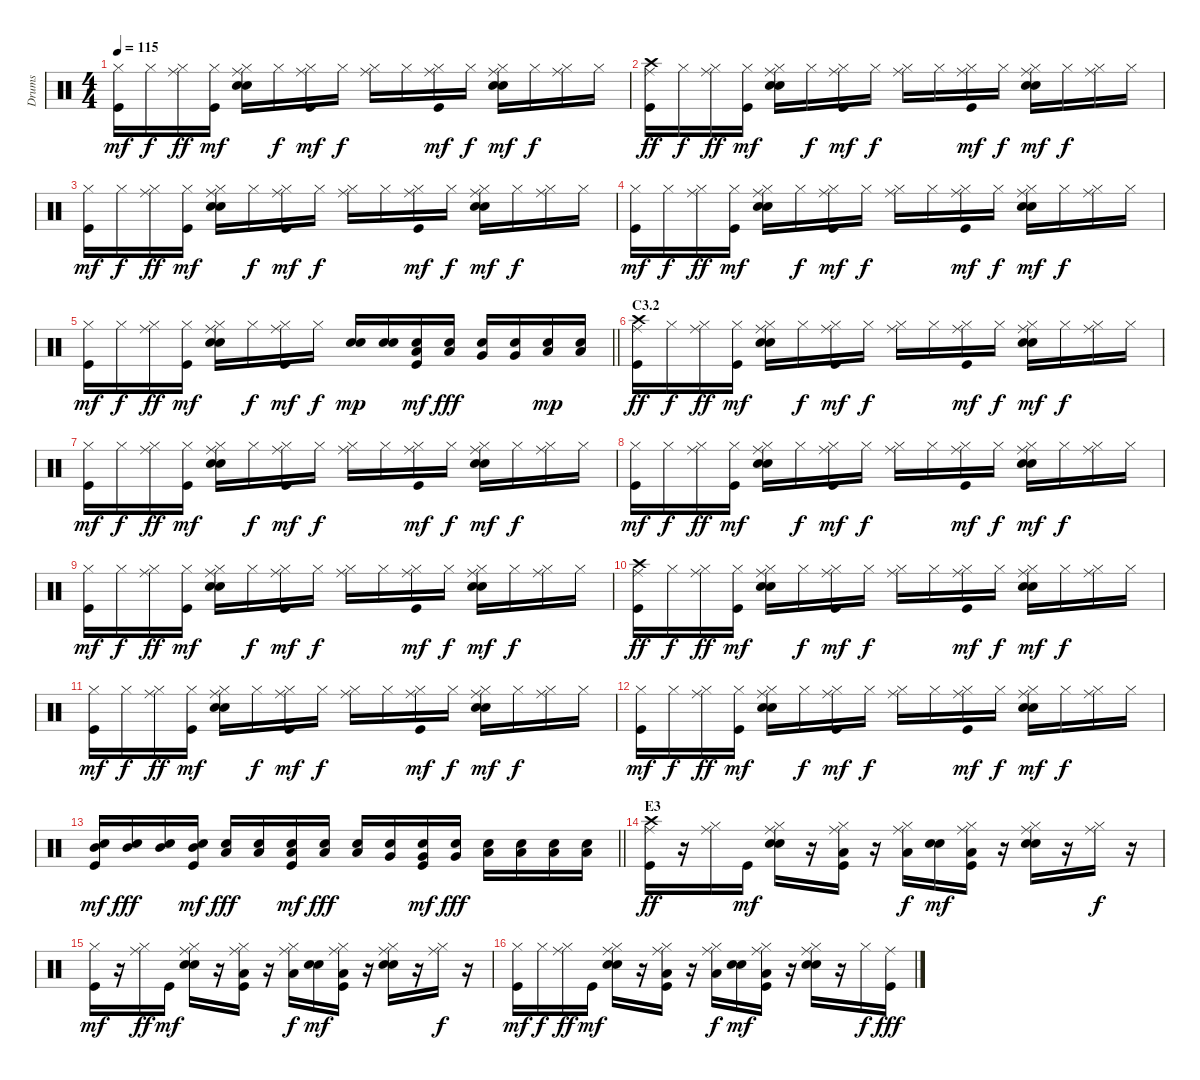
\track ("Drums" "Drums") {instrument percussion}
\staff {score}
\articulation defaults
\ts (4 4)
\tempo 115
\clef neutral
\ks c
("Hi-Hat (closed)" "Kick (hit)").16{dy mf} "Hi-Hat (closed)".16{dy f} ("Hi-Hat (closed)" "Ride (middle)").16{dy ff} ("Hi-Hat (closed)" "Kick (hit)").16{dy mf} ("Hi-Hat (closed)" "Ride (middle)" "Electric Snare (hit)" "Snare (hit) 2").16 "Hi-Hat (closed)".16{dy f} ("Hi-Hat (closed)" "Ride (middle)" "Kick (hit)").16{dy mf} "Hi-Hat (closed)".16{dy f} ("Hi-Hat (closed)" "Ride (middle)").16 "Hi-Hat (closed)".16 ("Hi-Hat (closed)" "Ride (middle)" "Kick (hit)").16{dy mf} "Hi-Hat (closed)".16{dy f} ("Hi-Hat (closed)" "Ride (middle)" "Electric Snare (hit)" "Snare (hit) 2").16{dy mf} "Hi-Hat (closed)".16{dy f} ("Hi-Hat (closed)" "Ride (middle)").16 "Hi-Hat (closed)".16 |
("Crash high (hit)" "Ride (middle)" "Kick (hit)").16{dy ff} "Hi-Hat (closed)".16{dy f} ("Hi-Hat (closed)" "Ride (middle)").16{dy ff} ("Hi-Hat (closed)" "Kick (hit)").16{dy mf} ("Hi-Hat (closed)" "Ride (middle)" "Electric Snare (hit)" "Snare (hit) 2").16 "Hi-Hat (closed)".16{dy f} ("Hi-Hat (closed)" "Ride (middle)" "Kick (hit)").16{dy mf} "Hi-Hat (closed)".16{dy f} ("Hi-Hat (closed)" "Ride (middle)").16 "Hi-Hat (closed)".16 ("Hi-Hat (closed)" "Ride (middle)" "Kick (hit)").16{dy mf} "Hi-Hat (closed)".16{dy f} ("Hi-Hat (closed)" "Ride (middle)" "Electric Snare (hit)" "Snare (hit) 2").16{dy mf} "Hi-Hat (closed)".16{dy f} ("Hi-Hat (closed)" "Ride (middle)").16 "Hi-Hat (closed)".16 |
("Hi-Hat (closed)" "Kick (hit)").16{dy mf} "Hi-Hat (closed)".16{dy f} ("Hi-Hat (closed)" "Ride (middle)").16{dy ff} ("Hi-Hat (closed)" "Kick (hit)").16{dy mf} ("Hi-Hat (closed)" "Ride (middle)" "Electric Snare (hit)" "Snare (hit) 2").16 "Hi-Hat (closed)".16{dy f} ("Hi-Hat (closed)" "Ride (middle)" "Kick (hit)").16{dy mf} "Hi-Hat (closed)".16{dy f} ("Hi-Hat (closed)" "Ride (middle)").16 "Hi-Hat (closed)".16 ("Hi-Hat (closed)" "Ride (middle)" "Kick (hit)").16{dy mf} "Hi-Hat (closed)".16{dy f} ("Hi-Hat (closed)" "Ride (middle)" "Electric Snare (hit)" "Snare (hit) 2").16{dy mf} "Hi-Hat (closed)".16{dy f} ("Hi-Hat (closed)" "Ride (middle)").16 "Hi-Hat (closed)".16 |
("Hi-Hat (closed)" "Kick (hit)").16{dy mf} "Hi-Hat (closed)".16{dy f} ("Hi-Hat (closed)" "Ride (middle)").16{dy ff} ("Hi-Hat (closed)" "Kick (hit)").16{dy mf} ("Hi-Hat (closed)" "Ride (middle)" "Electric Snare (hit)" "Snare (hit) 2").16 "Hi-Hat (closed)".16{dy f} ("Hi-Hat (closed)" "Ride (middle)" "Kick (hit)").16{dy mf} "Hi-Hat (closed)".16{dy f} ("Hi-Hat (closed)" "Ride (middle)").16 "Hi-Hat (closed)".16 ("Hi-Hat (closed)" "Ride (middle)" "Kick (hit)").16{dy mf} "Hi-Hat (closed)".16{dy f} ("Hi-Hat (closed)" "Ride (middle)" "Electric Snare (hit)" "Snare (hit) 2").16{dy mf} "Hi-Hat (closed)".16{dy f} ("Hi-Hat (closed)" "Ride (middle)").16 "Hi-Hat (closed)".16 |
\barLineRight lightlight
("Hi-Hat (closed)" "Kick (hit)").16{dy mf} "Hi-Hat (closed)".16{dy f} ("Hi-Hat (closed)" "Ride (middle)").16{dy ff} ("Hi-Hat (closed)" "Kick (hit)").16{dy mf} ("Hi-Hat (closed)" "Ride (middle)" "Electric Snare (hit)" "Snare (hit) 2").16 "Hi-Hat (closed)".16{dy f} ("Hi-Hat (closed)" "Ride (middle)" "Kick (hit)").16{dy mf} "Hi-Hat (closed)".16{dy f} ("Electric Snare (hit)" "Snare (hit) 2").16{dy mp} ("Electric Snare (hit)" "Snare (hit) 2").16 ("Electric Snare (hit)" "Low Tom (hit)" "Kick (hit)").16{dy mf} ("Electric Snare (hit)" "Low Tom (hit)").16{dy fff} ("Electric Snare (hit)" "Very Low Tom (hit)").16 ("Electric Snare (hit)" "Very Low Tom (hit)").16 ("Electric Snare (hit)" "Low Floor Tom (hit)").16{dy mp} ("Electric Snare (hit)" "Low Floor Tom (hit)").16 |
\section ("" "C3.2")
("Crash high (hit)" "Ride (middle)" "Kick (hit)").16{dy ff} "Hi-Hat (closed)".16{dy f} ("Hi-Hat (closed)" "Ride (middle)").16{dy ff} ("Hi-Hat (closed)" "Kick (hit)").16{dy mf} ("Hi-Hat (closed)" "Ride (middle)" "Electric Snare (hit)" "Snare (hit) 2").16 "Hi-Hat (closed)".16{dy f} ("Hi-Hat (closed)" "Ride (middle)" "Kick (hit)").16{dy mf} "Hi-Hat (closed)".16{dy f} ("Hi-Hat (closed)" "Ride (middle)").16 "Hi-Hat (closed)".16 ("Hi-Hat (closed)" "Ride (middle)" "Kick (hit)").16{dy mf} "Hi-Hat (closed)".16{dy f} ("Hi-Hat (closed)" "Ride (middle)" "Electric Snare (hit)" "Snare (hit) 2").16{dy mf} "Hi-Hat (closed)".16{dy f} ("Hi-Hat (closed)" "Ride (middle)").16 "Hi-Hat (closed)".16 |
("Hi-Hat (closed)" "Kick (hit)").16{dy mf} "Hi-Hat (closed)".16{dy f} ("Hi-Hat (closed)" "Ride (middle)").16{dy ff} ("Hi-Hat (closed)" "Kick (hit)").16{dy mf} ("Hi-Hat (closed)" "Ride (middle)" "Electric Snare (hit)" "Snare (hit) 2").16 "Hi-Hat (closed)".16{dy f} ("Hi-Hat (closed)" "Ride (middle)" "Kick (hit)").16{dy mf} "Hi-Hat (closed)".16{dy f} ("Hi-Hat (closed)" "Ride (middle)").16 "Hi-Hat (closed)".16 ("Hi-Hat (closed)" "Ride (middle)" "Kick (hit)").16{dy mf} "Hi-Hat (closed)".16{dy f} ("Hi-Hat (closed)" "Ride (middle)" "Electric Snare (hit)" "Snare (hit) 2").16{dy mf} "Hi-Hat (closed)".16{dy f} ("Hi-Hat (closed)" "Ride (middle)").16 "Hi-Hat (closed)".16 |
("Hi-Hat (closed)" "Kick (hit)").16{dy mf} "Hi-Hat (closed)".16{dy f} ("Hi-Hat (closed)" "Ride (middle)").16{dy ff} ("Hi-Hat (closed)" "Kick (hit)").16{dy mf} ("Hi-Hat (closed)" "Ride (middle)" "Electric Snare (hit)" "Snare (hit) 2").16 "Hi-Hat (closed)".16{dy f} ("Hi-Hat (closed)" "Ride (middle)" "Kick (hit)").16{dy mf} "Hi-Hat (closed)".16{dy f} ("Hi-Hat (closed)" "Ride (middle)").16 "Hi-Hat (closed)".16 ("Hi-Hat (closed)" "Ride (middle)" "Kick (hit)").16{dy mf} "Hi-Hat (closed)".16{dy f} ("Hi-Hat (closed)" "Ride (middle)" "Electric Snare (hit)" "Snare (hit) 2").16{dy mf} "Hi-Hat (closed)".16{dy f} ("Hi-Hat (closed)" "Ride (middle)").16 "Hi-Hat (closed)".16 |
("Hi-Hat (closed)" "Kick (hit)").16{dy mf} "Hi-Hat (closed)".16{dy f} ("Hi-Hat (closed)" "Ride (middle)").16{dy ff} ("Hi-Hat (closed)" "Kick (hit)").16{dy mf} ("Hi-Hat (closed)" "Ride (middle)" "Electric Snare (hit)" "Snare (hit) 2").16 "Hi-Hat (closed)".16{dy f} ("Hi-Hat (closed)" "Ride (middle)" "Kick (hit)").16{dy mf} "Hi-Hat (closed)".16{dy f} ("Hi-Hat (closed)" "Ride (middle)").16 "Hi-Hat (closed)".16 ("Hi-Hat (closed)" "Ride (middle)" "Kick (hit)").16{dy mf} "Hi-Hat (closed)".16{dy f} ("Hi-Hat (closed)" "Ride (middle)" "Electric Snare (hit)" "Snare (hit) 2").16{dy mf} "Hi-Hat (closed)".16{dy f} ("Hi-Hat (closed)" "Ride (middle)").16 "Hi-Hat (closed)".16 |
("Crash high (hit)" "Ride (middle)" "Kick (hit)").16{dy ff} "Hi-Hat (closed)".16{dy f} ("Hi-Hat (closed)" "Ride (middle)").16{dy ff} ("Hi-Hat (closed)" "Kick (hit)").16{dy mf} ("Hi-Hat (closed)" "Ride (middle)" "Electric Snare (hit)" "Snare (hit) 2").16 "Hi-Hat (closed)".16{dy f} ("Hi-Hat (closed)" "Ride (middle)" "Kick (hit)").16{dy mf} "Hi-Hat (closed)".16{dy f} ("Hi-Hat (closed)" "Ride (middle)").16 "Hi-Hat (closed)".16 ("Hi-Hat (closed)" "Ride (middle)" "Kick (hit)").16{dy mf} "Hi-Hat (closed)".16{dy f} ("Hi-Hat (closed)" "Ride (middle)" "Electric Snare (hit)" "Snare (hit) 2").16{dy mf} "Hi-Hat (closed)".16{dy f} ("Hi-Hat (closed)" "Ride (middle)").16 "Hi-Hat (closed)".16 |
("Hi-Hat (closed)" "Kick (hit)").16{dy mf} "Hi-Hat (closed)".16{dy f} ("Hi-Hat (closed)" "Ride (middle)").16{dy ff} ("Hi-Hat (closed)" "Kick (hit)").16{dy mf} ("Hi-Hat (closed)" "Ride (middle)" "Electric Snare (hit)" "Snare (hit) 2").16 "Hi-Hat (closed)".16{dy f} ("Hi-Hat (closed)" "Ride (middle)" "Kick (hit)").16{dy mf} "Hi-Hat (closed)".16{dy f} ("Hi-Hat (closed)" "Ride (middle)").16 "Hi-Hat (closed)".16 ("Hi-Hat (closed)" "Ride (middle)" "Kick (hit)").16{dy mf} "Hi-Hat (closed)".16{dy f} ("Hi-Hat (closed)" "Ride (middle)" "Electric Snare (hit)" "Snare (hit) 2").16{dy mf} "Hi-Hat (closed)".16{dy f} ("Hi-Hat (closed)" "Ride (middle)").16 "Hi-Hat (closed)".16 |
("Hi-Hat (closed)" "Kick (hit)").16{dy mf} "Hi-Hat (closed)".16{dy f} ("Hi-Hat (closed)" "Ride (middle)").16{dy ff} ("Hi-Hat (closed)" "Kick (hit)").16{dy mf} ("Hi-Hat (closed)" "Ride (middle)" "Electric Snare (hit)" "Snare (hit) 2").16 "Hi-Hat (closed)".16{dy f} ("Hi-Hat (closed)" "Ride (middle)" "Kick (hit)").16{dy mf} "Hi-Hat (closed)".16{dy f} ("Hi-Hat (closed)" "Ride (middle)").16 "Hi-Hat (closed)".16 ("Hi-Hat (closed)" "Ride (middle)" "Kick (hit)").16{dy mf} "Hi-Hat (closed)".16{dy f} ("Hi-Hat (closed)" "Ride (middle)" "Electric Snare (hit)" "Snare (hit) 2").16{dy mf} "Hi-Hat (closed)".16{dy f} ("Hi-Hat (closed)" "Ride (middle)").16 "Hi-Hat (closed)".16 |
\barLineRight lightlight
("Electric Snare (hit)" "Mid Tom (hit)" "Kick (hit)").16{dy mf} ("Electric Snare (hit)" "Mid Tom (hit)").16{dy fff} ("Electric Snare (hit)" "Mid Tom (hit)").16 ("Electric Snare (hit)" "Mid Tom (hit)" "Kick (hit)").16{dy mf} ("Electric Snare (hit)" "Low Tom (hit)").16{dy fff} ("Electric Snare (hit)" "Low Tom (hit)").16 ("Electric Snare (hit)" "Low Tom (hit)" "Kick (hit)").16{dy mf} ("Electric Snare (hit)" "Low Tom (hit)").16{dy fff} ("Electric Snare (hit)" "Low Tom (hit)").16 ("Electric Snare (hit)" "Very Low Tom (hit)").16 ("Electric Snare (hit)" "Very Low Tom (hit)" "Kick (hit)").16{dy mf} ("Electric Snare (hit)" "Very Low Tom (hit)").16{dy fff} ("Electric Snare (hit)" "Low Floor Tom (hit)").16 ("Electric Snare (hit)" "Low Floor Tom (hit)").16 ("Electric Snare (hit)" "Low Floor Tom (hit)").16 ("Electric Snare (hit)" "Low Floor Tom (hit)").16 |
\section ("" "E3")
("Crash high (hit)" "Ride (middle)" "Kick (hit)").16{dy ff} r.16 ("Hi-Hat (closed)" "Ride (middle)").16 "Kick (hit)".16{dy mf} ("Hi-Hat (closed)" "Ride (middle)" "Electric Snare (hit)" "Snare (hit) 2").16 r.16 ("Hi-Hat (closed)" "Ride (middle)" "Low Tom (hit)" "Kick (hit)").16 r.16 ("Hi-Hat (closed)" "Ride (middle)" "Low Tom (hit)").16{dy f} ("Electric Snare (hit)" "Snare (hit) 2").16{dy mf} ("Hi-Hat (closed)" "Ride (middle)" "Low Tom (hit)" "Kick (hit)").16 r.16 ("Hi-Hat (closed)" "Ride (middle)" "Electric Snare (hit)" "Snare (hit) 2").16 r.16 ("Hi-Hat (closed)" "Ride (middle)").16{dy f} r.16 |
("Hi-Hat (closed)" "Kick (hit)").16{dy mf} r.16 ("Hi-Hat (closed)" "Ride (middle)").16{dy ff} "Kick (hit)".16{dy mf} ("Hi-Hat (closed)" "Ride (middle)" "Electric Snare (hit)" "Snare (hit) 2").16 r.16 ("Hi-Hat (closed)" "Ride (middle)" "Low Tom (hit)" "Kick (hit)").16 r.16 ("Hi-Hat (closed)" "Ride (middle)" "Low Tom (hit)").16{dy f} ("Electric Snare (hit)" "Snare (hit) 2").16{dy mf} ("Hi-Hat (closed)" "Ride (middle)" "Low Tom (hit)" "Kick (hit)").16 r.16 ("Hi-Hat (closed)" "Ride (middle)" "Electric Snare (hit)" "Snare (hit) 2").16 r.16 ("Hi-Hat (closed)" "Ride (middle)").16{dy f} r.16 |
("Hi-Hat (closed)" "Kick (hit)").16{dy mf} "Hi-Hat (closed)".16{dy f} ("Hi-Hat (closed)" "Ride (middle)").16{dy ff} "Kick (hit)".16{dy mf} ("Hi-Hat (closed)" "Ride (middle)" "Electric Snare (hit)" "Snare (hit) 2").16 r.16 ("Hi-Hat (closed)" "Ride (middle)" "Low Tom (hit)" "Kick (hit)").16 r.16 ("Hi-Hat (closed)" "Ride (middle)" "Low Tom (hit)").16{dy f} ("Electric Snare (hit)" "Snare (hit) 2").16{dy mf} ("Hi-Hat (closed)" "Ride (middle)" "Low Tom (hit)" "Kick (hit)").16 r.16 ("Hi-Hat (closed)" "Ride (middle)" "Electric Snare (hit)" "Snare (hit) 2").16 r.16 "Hi-Hat (closed)".16{dy f} ("Ride (middle)" "Kick (hit)").16{dy fff}
